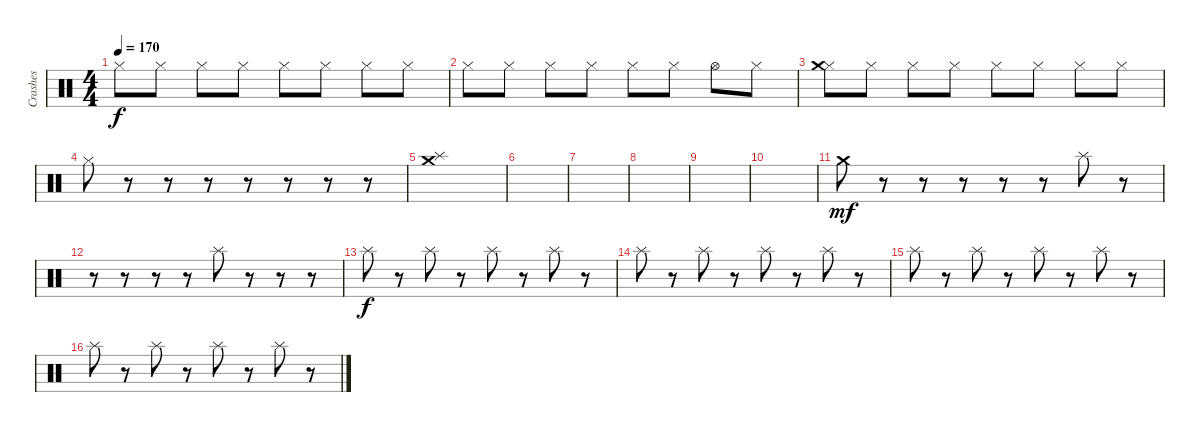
\track ("Crashes" "Crashes") {instrument percussion}
\staff {score}
\articulation defaults
\ts (4 4)
\tempo 170
\clef neutral
\ks c "Hi-Hat (closed)".8{dy f} "Hi-Hat (closed)".8 "Hi-Hat (closed)".8 "Hi-Hat (closed)".8 "Hi-Hat (closed)".8 "Hi-Hat (closed)".8 "Hi-Hat (closed)".8 "Hi-Hat (closed)".8
|
"Hi-Hat (closed)".8 "Hi-Hat (closed)".8 "Hi-Hat (closed)".8 "Hi-Hat (closed)".8 "Hi-Hat (closed)".8 "Hi-Hat (closed)".8 "Hi-Hat (open)".8 "Hi-Hat (closed)".8 |
("Hi-Hat (closed)" "Crash medium (hit)").8 "Hi-Hat (closed)".8 "Hi-Hat (closed)".8 "Hi-Hat (closed)".8 "Hi-Hat (closed)".8 "Hi-Hat (closed)".8 "Hi-Hat (closed)".8 "Hi-Hat (closed)".8 |
"Hi-Hat (closed)".8 r.8 r.8 r.8 r.8 r.8 r.8 r.8 |
("Splash (hit)" "Crash medium (hit)").1 |
|
|
|
|
|
"Crash medium (hit)".8{dy mf} r.8 r.8 r.8 r.8 r.8 "Splash (hit)".8 r.8 |
r.8 r.8 r.8 r.8 "Splash (hit)".8 r.8 r.8 r.8 |
"Splash (hit)".8{dy f} r.8 "Splash (hit)".8 r.8 "Splash (hit)".8 r.8 "Splash (hit)".8 r.8 |
"Splash (hit)".8 r.8 "Splash (hit)".8 r.8 "Splash (hit)".8 r.8 "Splash (hit)".8 r.8 |
"Splash (hit)".8 r.8 "Splash (hit)".8 r.8 "Splash (hit)".8 r.8 "Splash (hit)".8 r.8 |
"Splash (hit)".8 r.8 "Splash (hit)".8 r.8 "Splash (hit)".8 r.8 "Splash (hit)".8 r.8
